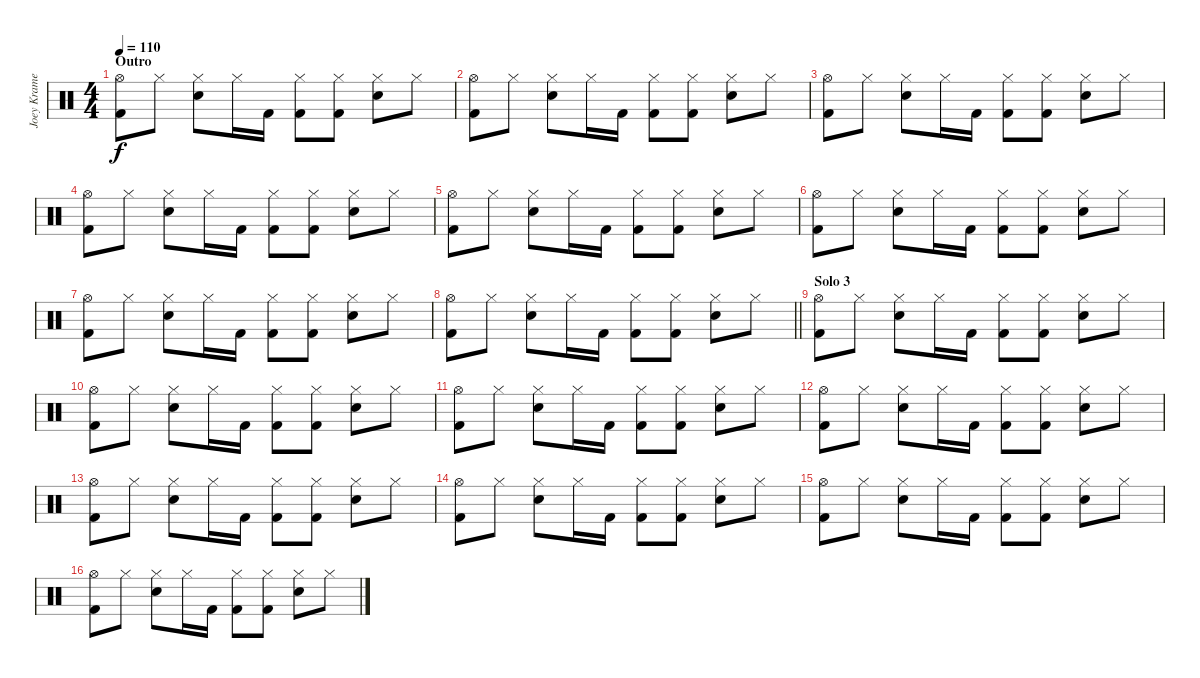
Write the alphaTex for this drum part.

\track ("Joey Kramer - Drums" "Joey Krame") {instrument percussion}
\staff {score}
\articulation defaults
\ts (4 4)
\section ("" "Outro")
\tempo 110
\clef neutral
\ks c
("Hi-Hat (open)" "Kick (hit) 2").8{dy f} "Hi-Hat (closed)".8 ("Hi-Hat (closed)" "Electric Snare (hit)").8 "Hi-Hat (closed)".16 "Kick (hit) 2".16 ("Hi-Hat (closed)" "Kick (hit) 2").8 ("Hi-Hat (closed)" "Kick (hit) 2").8 ("Hi-Hat (closed)" "Electric Snare (hit)").8 "Hi-Hat (closed)".8 |
("Hi-Hat (open)" "Kick (hit) 2").8 "Hi-Hat (closed)".8 ("Hi-Hat (closed)" "Electric Snare (hit)").8 "Hi-Hat (closed)".16 "Kick (hit) 2".16 ("Hi-Hat (closed)" "Kick (hit) 2").8 ("Hi-Hat (closed)" "Kick (hit) 2").8 ("Hi-Hat (closed)" "Electric Snare (hit)").8 "Hi-Hat (closed)".8 |
("Hi-Hat (open)" "Kick (hit) 2").8 "Hi-Hat (closed)".8 ("Hi-Hat (closed)" "Electric Snare (hit)").8 "Hi-Hat (closed)".16 "Kick (hit) 2".16 ("Hi-Hat (closed)" "Kick (hit) 2").8 ("Hi-Hat (closed)" "Kick (hit) 2").8 ("Hi-Hat (closed)" "Electric Snare (hit)").8 "Hi-Hat (closed)".8 |
("Hi-Hat (open)" "Kick (hit) 2").8 "Hi-Hat (closed)".8 ("Hi-Hat (closed)" "Electric Snare (hit)").8 "Hi-Hat (closed)".16 "Kick (hit) 2".16 ("Hi-Hat (closed)" "Kick (hit) 2").8 ("Hi-Hat (closed)" "Kick (hit) 2").8 ("Hi-Hat (closed)" "Electric Snare (hit)").8 "Hi-Hat (closed)".8 |
("Hi-Hat (open)" "Kick (hit) 2").8 "Hi-Hat (closed)".8 ("Hi-Hat (closed)" "Electric Snare (hit)").8 "Hi-Hat (closed)".16 "Kick (hit) 2".16 ("Hi-Hat (closed)" "Kick (hit) 2").8 ("Hi-Hat (closed)" "Kick (hit) 2").8 ("Hi-Hat (closed)" "Electric Snare (hit)").8 "Hi-Hat (closed)".8 |
("Hi-Hat (open)" "Kick (hit) 2").8 "Hi-Hat (closed)".8 ("Hi-Hat (closed)" "Electric Snare (hit)").8 "Hi-Hat (closed)".16 "Kick (hit) 2".16 ("Hi-Hat (closed)" "Kick (hit) 2").8 ("Hi-Hat (closed)" "Kick (hit) 2").8 ("Hi-Hat (closed)" "Electric Snare (hit)").8 "Hi-Hat (closed)".8 |
("Hi-Hat (open)" "Kick (hit) 2").8 "Hi-Hat (closed)".8 ("Hi-Hat (closed)" "Electric Snare (hit)").8 "Hi-Hat (closed)".16 "Kick (hit) 2".16 ("Hi-Hat (closed)" "Kick (hit) 2").8 ("Hi-Hat (closed)" "Kick (hit) 2").8 ("Hi-Hat (closed)" "Electric Snare (hit)").8 "Hi-Hat (closed)".8 |
\barLineRight lightlight
("Hi-Hat (open)" "Kick (hit) 2").8 "Hi-Hat (closed)".8 ("Hi-Hat (closed)" "Electric Snare (hit)").8 "Hi-Hat (closed)".16 "Kick (hit) 2".16 ("Hi-Hat (closed)" "Kick (hit) 2").8 ("Hi-Hat (closed)" "Kick (hit) 2").8 ("Hi-Hat (closed)" "Electric Snare (hit)").8 "Hi-Hat (closed)".8 |
\section ("" "Solo 3")
("Hi-Hat (open)" "Kick (hit) 2").8 "Hi-Hat (closed)".8 ("Hi-Hat (closed)" "Electric Snare (hit)").8 "Hi-Hat (closed)".16 "Kick (hit) 2".16 ("Hi-Hat (closed)" "Kick (hit) 2").8 ("Hi-Hat (closed)" "Kick (hit) 2").8 ("Hi-Hat (closed)" "Electric Snare (hit)").8 "Hi-Hat (closed)".8 |
("Hi-Hat (open)" "Kick (hit) 2").8 "Hi-Hat (closed)".8 ("Hi-Hat (closed)" "Electric Snare (hit)").8 "Hi-Hat (closed)".16 "Kick (hit) 2".16 ("Hi-Hat (closed)" "Kick (hit) 2").8 ("Hi-Hat (closed)" "Kick (hit) 2").8 ("Hi-Hat (closed)" "Electric Snare (hit)").8 "Hi-Hat (closed)".8 |
("Hi-Hat (open)" "Kick (hit) 2").8 "Hi-Hat (closed)".8 ("Hi-Hat (closed)" "Electric Snare (hit)").8 "Hi-Hat (closed)".16 "Kick (hit) 2".16 ("Hi-Hat (closed)" "Kick (hit) 2").8 ("Hi-Hat (closed)" "Kick (hit) 2").8 ("Hi-Hat (closed)" "Electric Snare (hit)").8 "Hi-Hat (closed)".8 |
("Hi-Hat (open)" "Kick (hit) 2").8 "Hi-Hat (closed)".8 ("Hi-Hat (closed)" "Electric Snare (hit)").8 "Hi-Hat (closed)".16 "Kick (hit) 2".16 ("Hi-Hat (closed)" "Kick (hit) 2").8 ("Hi-Hat (closed)" "Kick (hit) 2").8 ("Hi-Hat (closed)" "Electric Snare (hit)").8 "Hi-Hat (closed)".8 |
("Hi-Hat (open)" "Kick (hit) 2").8 "Hi-Hat (closed)".8 ("Hi-Hat (closed)" "Electric Snare (hit)").8 "Hi-Hat (closed)".16 "Kick (hit) 2".16 ("Hi-Hat (closed)" "Kick (hit) 2").8 ("Hi-Hat (closed)" "Kick (hit) 2").8 ("Hi-Hat (closed)" "Electric Snare (hit)").8 "Hi-Hat (closed)".8 |
("Hi-Hat (open)" "Kick (hit) 2").8 "Hi-Hat (closed)".8 ("Hi-Hat (closed)" "Electric Snare (hit)").8 "Hi-Hat (closed)".16 "Kick (hit) 2".16 ("Hi-Hat (closed)" "Kick (hit) 2").8 ("Hi-Hat (closed)" "Kick (hit) 2").8 ("Hi-Hat (closed)" "Electric Snare (hit)").8 "Hi-Hat (closed)".8 |
("Hi-Hat (open)" "Kick (hit) 2").8 "Hi-Hat (closed)".8 ("Hi-Hat (closed)" "Electric Snare (hit)").8 "Hi-Hat (closed)".16 "Kick (hit) 2".16 ("Hi-Hat (closed)" "Kick (hit) 2").8 ("Hi-Hat (closed)" "Kick (hit) 2").8 ("Hi-Hat (closed)" "Electric Snare (hit)").8 "Hi-Hat (closed)".8 |
("Hi-Hat (open)" "Kick (hit) 2").8 "Hi-Hat (closed)".8 ("Hi-Hat (closed)" "Electric Snare (hit)").8 "Hi-Hat (closed)".16 "Kick (hit) 2".16 ("Hi-Hat (closed)" "Kick (hit) 2").8 ("Hi-Hat (closed)" "Kick (hit) 2").8 ("Hi-Hat (closed)" "Electric Snare (hit)").8 "Hi-Hat (closed)".8
